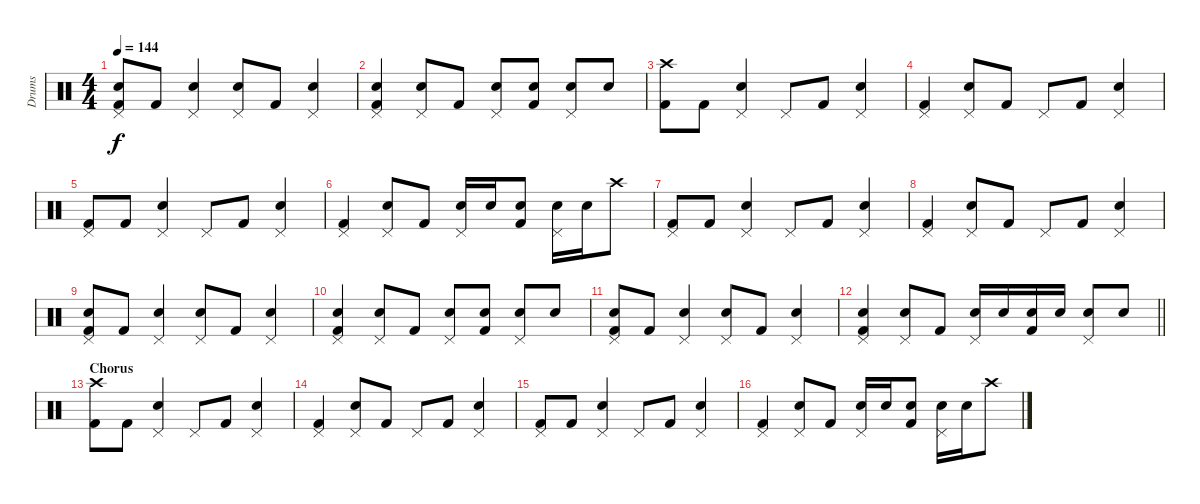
\track ("Drums" "Drums") {instrument percussion}
\staff {score}
\articulation defaults
\ts (4 4)
\tempo 144
\clef neutral
\ks c
("Electric Snare (hit)" "Pedal Hi-Hat (hit)" "Kick (hit) 2").8{dy f} "Kick (hit) 2".8 ("Pedal Hi-Hat (hit)" "Electric Snare (hit)").4 ("Electric Snare (hit)" "Pedal Hi-Hat (hit)").8 "Kick (hit) 2".8 ("Pedal Hi-Hat (hit)" "Electric Snare (hit)").4 |
("Electric Snare (hit)" "Kick (hit) 2" "Pedal Hi-Hat (hit)").4 ("Electric Snare (hit)" "Pedal Hi-Hat (hit)").8 "Kick (hit) 2".8 ("Electric Snare (hit)" "Pedal Hi-Hat (hit)").8 ("Electric Snare (hit)" "Kick (hit) 2").8 ("Electric Snare (hit)" "Pedal Hi-Hat (hit)").8 "Electric Snare (hit)".8 |
("Crash high (hit)" "Kick (hit) 2").8 "Kick (hit) 2".8 ("Pedal Hi-Hat (hit)" "Electric Snare (hit)").4 "Pedal Hi-Hat (hit)".8 "Kick (hit) 2".8 ("Pedal Hi-Hat (hit)" "Electric Snare (hit)").4 |
("Kick (hit) 2" "Pedal Hi-Hat (hit)").4 ("Electric Snare (hit)" "Pedal Hi-Hat (hit)").8 "Kick (hit) 2".8 "Pedal Hi-Hat (hit)".8 "Kick (hit) 2".8 ("Electric Snare (hit)" "Pedal Hi-Hat (hit)").4 |
("Pedal Hi-Hat (hit)" "Kick (hit) 2").8 "Kick (hit) 2".8 ("Pedal Hi-Hat (hit)" "Electric Snare (hit)").4 "Pedal Hi-Hat (hit)".8 "Kick (hit) 2".8 ("Pedal Hi-Hat (hit)" "Electric Snare (hit)").4 |
("Kick (hit) 2" "Pedal Hi-Hat (hit)").4 ("Electric Snare (hit)" "Pedal Hi-Hat (hit)").8 "Kick (hit) 2".8 ("Electric Snare (hit)" "Pedal Hi-Hat (hit)").16 "Electric Snare (hit)".16 ("Electric Snare (hit)" "Kick (hit) 2").8 ("Electric Snare (hit)" "Pedal Hi-Hat (hit)").16 "Electric Snare (hit)".16 "Crash high (hit)".8 |
("Pedal Hi-Hat (hit)" "Kick (hit) 2").8 "Kick (hit) 2".8 ("Pedal Hi-Hat (hit)" "Electric Snare (hit)").4 "Pedal Hi-Hat (hit)".8 "Kick (hit) 2".8 ("Pedal Hi-Hat (hit)" "Electric Snare (hit)").4 |
("Kick (hit) 2" "Pedal Hi-Hat (hit)").4 ("Electric Snare (hit)" "Pedal Hi-Hat (hit)").8 "Kick (hit) 2".8 "Pedal Hi-Hat (hit)".8 "Kick (hit) 2".8 ("Electric Snare (hit)" "Pedal Hi-Hat (hit)").4 |
("Electric Snare (hit)" "Pedal Hi-Hat (hit)" "Kick (hit) 2").8 "Kick (hit) 2".8 ("Pedal Hi-Hat (hit)" "Electric Snare (hit)").4 ("Electric Snare (hit)" "Pedal Hi-Hat (hit)").8 "Kick (hit) 2".8 ("Pedal Hi-Hat (hit)" "Electric Snare (hit)").4 |
("Electric Snare (hit)" "Kick (hit) 2" "Pedal Hi-Hat (hit)").4 ("Electric Snare (hit)" "Pedal Hi-Hat (hit)").8 "Kick (hit) 2".8 ("Electric Snare (hit)" "Pedal Hi-Hat (hit)").8 ("Electric Snare (hit)" "Kick (hit) 2").8 ("Electric Snare (hit)" "Pedal Hi-Hat (hit)").8 "Electric Snare (hit)".8 |
("Electric Snare (hit)" "Pedal Hi-Hat (hit)" "Kick (hit) 2").8 "Kick (hit) 2".8 ("Pedal Hi-Hat (hit)" "Electric Snare (hit)").4 ("Electric Snare (hit)" "Pedal Hi-Hat (hit)").8 "Kick (hit) 2".8 ("Pedal Hi-Hat (hit)" "Electric Snare (hit)").4 |
\barLineRight lightlight
("Electric Snare (hit)" "Kick (hit) 2" "Pedal Hi-Hat (hit)").4 ("Electric Snare (hit)" "Pedal Hi-Hat (hit)").8 "Kick (hit) 2".8 ("Electric Snare (hit)" "Pedal Hi-Hat (hit)").16 "Electric Snare (hit)".16 ("Electric Snare (hit)" "Kick (hit) 2").16 "Electric Snare (hit)".16 ("Electric Snare (hit)" "Pedal Hi-Hat (hit)").8 "Electric Snare (hit)".8 |
\section ("" "Chorus")
("Crash high (hit)" "Kick (hit) 2").8 "Kick (hit) 2".8 ("Pedal Hi-Hat (hit)" "Electric Snare (hit)").4 "Pedal Hi-Hat (hit)".8 "Kick (hit) 2".8 ("Pedal Hi-Hat (hit)" "Electric Snare (hit)").4 |
("Kick (hit) 2" "Pedal Hi-Hat (hit)").4 ("Electric Snare (hit)" "Pedal Hi-Hat (hit)").8 "Kick (hit) 2".8 "Pedal Hi-Hat (hit)".8 "Kick (hit) 2".8 ("Electric Snare (hit)" "Pedal Hi-Hat (hit)").4 |
("Pedal Hi-Hat (hit)" "Kick (hit) 2").8 "Kick (hit) 2".8 ("Pedal Hi-Hat (hit)" "Electric Snare (hit)").4 "Pedal Hi-Hat (hit)".8 "Kick (hit) 2".8 ("Pedal Hi-Hat (hit)" "Electric Snare (hit)").4 |
("Kick (hit) 2" "Pedal Hi-Hat (hit)").4 ("Electric Snare (hit)" "Pedal Hi-Hat (hit)").8 "Kick (hit) 2".8 ("Electric Snare (hit)" "Pedal Hi-Hat (hit)").16 "Electric Snare (hit)".16 ("Electric Snare (hit)" "Kick (hit) 2").8 ("Electric Snare (hit)" "Pedal Hi-Hat (hit)").16 "Electric Snare (hit)".16 "Crash high (hit)".8
